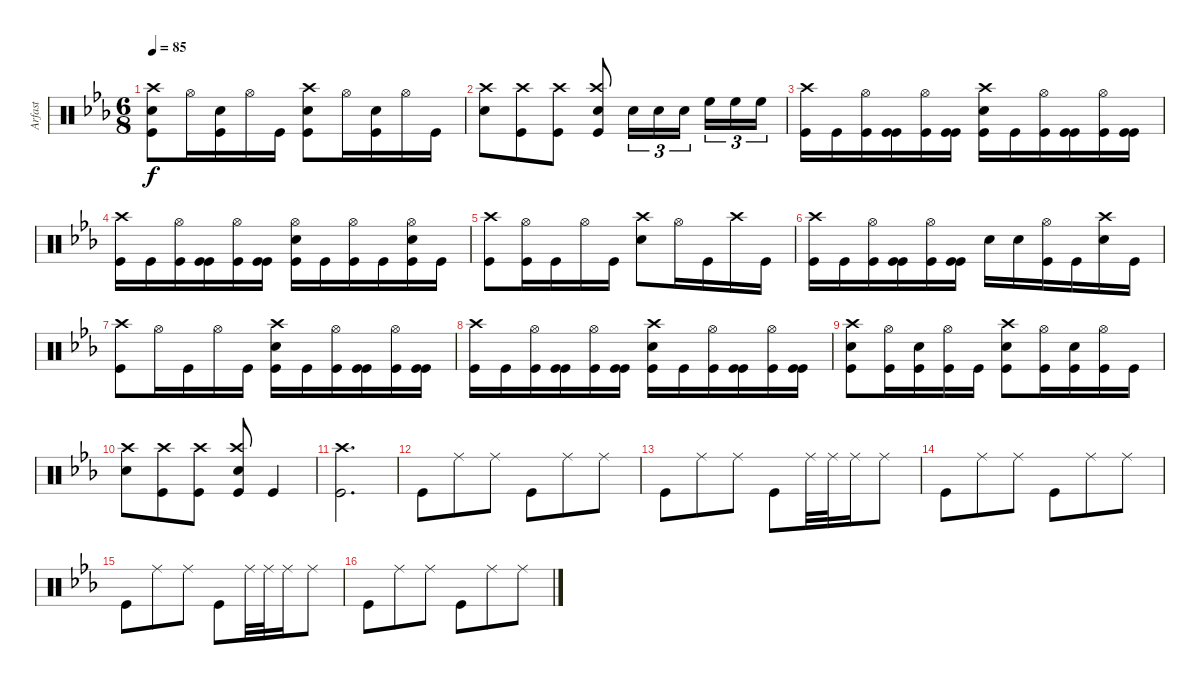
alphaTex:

\track ("Arfast" "Arfast") {instrument percussion}
\staff {score}
\articulation defaults
\ts (6 8)
\tempo 85
\clef neutral
\ks cminor
("Kick (hit)" "Crash high (hit)" "Snare (hit) 2").8{dy f} "Hi-Hat (open)".16 ("Kick (hit)" "Snare (hit) 2").16 "Hi-Hat (open)".16 "Kick (hit)".16 ("Kick (hit)" "Crash high (hit)" "Snare (hit) 2").8 "Hi-Hat (open)".16 ("Kick (hit)" "Snare (hit) 2").16 "Hi-Hat (open)".16 "Kick (hit)".16 |
("Crash high (hit)" "Snare (hit) 2").8 ("Crash high (hit)" "Kick (hit)").8 ("Crash high (hit)" "Kick (hit)").8 ("Crash high (hit)" "Kick (hit)" "Snare (hit) 2").8 "Snare (hit) 2".16{tu (3 2)} "Snare (hit) 2".16{tu (3 2)} "Snare (hit) 2".16{tu (3 2) beam splitsecondary} "High Floor Tom (hit)".16{tu (3 2)} "High Floor Tom (hit)".16{tu (3 2)} "High Floor Tom (hit)".16{tu (3 2)} |
("Kick (hit)" "Crash high (hit)").16 "Kick (hit)".16 ("Hi-Hat (open)" "Kick (hit)").16 ("Kick (hit)" "Kick (hit)").16 ("Hi-Hat (open)" "Kick (hit)").16 ("Kick (hit)" "Kick (hit)").16 ("Kick (hit)" "Crash high (hit)" "Snare (hit) 2").16 "Kick (hit)".16 ("Hi-Hat (open)" "Kick (hit)").16 ("Kick (hit)" "Kick (hit)").16 ("Hi-Hat (open)" "Kick (hit)").16 ("Kick (hit)" "Kick (hit)").16 |
("Kick (hit)" "Crash high (hit)").16 "Kick (hit)".16 ("Hi-Hat (open)" "Kick (hit)").16 ("Kick (hit)" "Kick (hit)").16 ("Hi-Hat (open)" "Kick (hit)").16 ("Kick (hit)" "Kick (hit)").16 ("Snare (hit) 2" "Hi-Hat (open)" "Kick (hit)").16 "Kick (hit)".16 ("Hi-Hat (open)" "Kick (hit)").16 "Kick (hit)".16 ("Hi-Hat (open)" "Snare (hit) 2" "Kick (hit)").16 "Kick (hit)".16 |
("Kick (hit)" "Crash high (hit)").8 ("Kick (hit)" "Hi-Hat (open)").16 "Kick (hit)".16 "Hi-Hat (open)".16 "Kick (hit)".16 ("Snare (hit) 2" "Crash high (hit)").8 "Hi-Hat (open)".16 "Kick (hit)".16 "Crash high (hit)".16 "Kick (hit)".16 |
("Kick (hit)" "Crash high (hit)").16 "Kick (hit)".16 ("Hi-Hat (open)" "Kick (hit)").16 ("Kick (hit)" "Kick (hit)").16 ("Hi-Hat (open)" "Kick (hit)").16 ("Kick (hit)" "Kick (hit)").16 "Snare (hit) 2".16 "Snare (hit) 2".16 ("Hi-Hat (open)" "Kick (hit)").16 "Kick (hit)".16 ("Crash high (hit)" "Snare (hit) 2").16 "Kick (hit)".16 |
("Kick (hit)" "Crash high (hit)").8 "Hi-Hat (open)".16 "Kick (hit)".16 "Hi-Hat (open)".16 "Kick (hit)".16 ("Kick (hit)" "Crash high (hit)" "Snare (hit) 2").16 "Kick (hit)".16 ("Hi-Hat (open)" "Kick (hit)").16 ("Kick (hit)" "Kick (hit)").16 ("Hi-Hat (open)" "Kick (hit)").16 ("Kick (hit)" "Kick (hit)").16 |
("Kick (hit)" "Crash high (hit)").16 "Kick (hit)".16 ("Hi-Hat (open)" "Kick (hit)").16 ("Kick (hit)" "Kick (hit)").16 ("Hi-Hat (open)" "Kick (hit)").16 ("Kick (hit)" "Kick (hit)").16 ("Kick (hit)" "Crash high (hit)" "Snare (hit) 2").16 "Kick (hit)".16 ("Hi-Hat (open)" "Kick (hit)").16 ("Kick (hit)" "Kick (hit)").16 ("Hi-Hat (open)" "Kick (hit)").16 ("Kick (hit)" "Kick (hit)").16 |
("Kick (hit)" "Crash high (hit)" "Snare (hit) 2").8 ("Hi-Hat (open)" "Kick (hit)").16 ("Kick (hit)" "Snare (hit) 2").16 ("Hi-Hat (open)" "Kick (hit)").16 "Kick (hit)".16 ("Kick (hit)" "Crash high (hit)" "Snare (hit) 2").8 ("Hi-Hat (open)" "Kick (hit)").16 ("Kick (hit)" "Snare (hit) 2").16 ("Hi-Hat (open)" "Kick (hit)").16 "Kick (hit)".16 |
("Crash high (hit)" "Snare (hit) 2").8 ("Crash high (hit)" "Kick (hit)").8 ("Crash high (hit)" "Kick (hit)").8 ("Crash high (hit)" "Kick (hit)" "Snare (hit) 2").8 "Kick (hit)".4 |
("Crash high (hit)" "Kick (hit)").2{d} |
"Kick (hit)".8 "Ride (middle)".8 "Ride (middle)".8 "Kick (hit)".8 "Ride (middle)".8 "Ride (middle)".8 |
"Kick (hit)".8 "Ride (middle)".8 "Ride (middle)".8 "Kick (hit)".8 "Ride (middle)".32 "Ride (middle)".32 "Ride (middle)".16 "Ride (middle)".8 |
"Kick (hit)".8 "Ride (middle)".8 "Ride (middle)".8 "Kick (hit)".8 "Ride (middle)".8 "Ride (middle)".8 |
"Kick (hit)".8 "Ride (middle)".8 "Ride (middle)".8 "Kick (hit)".8 "Ride (middle)".32 "Ride (middle)".32 "Ride (middle)".16 "Ride (middle)".8 |
"Kick (hit)".8 "Ride (middle)".8 "Ride (middle)".8 "Kick (hit)".8 "Ride (middle)".8 "Ride (middle)".8
